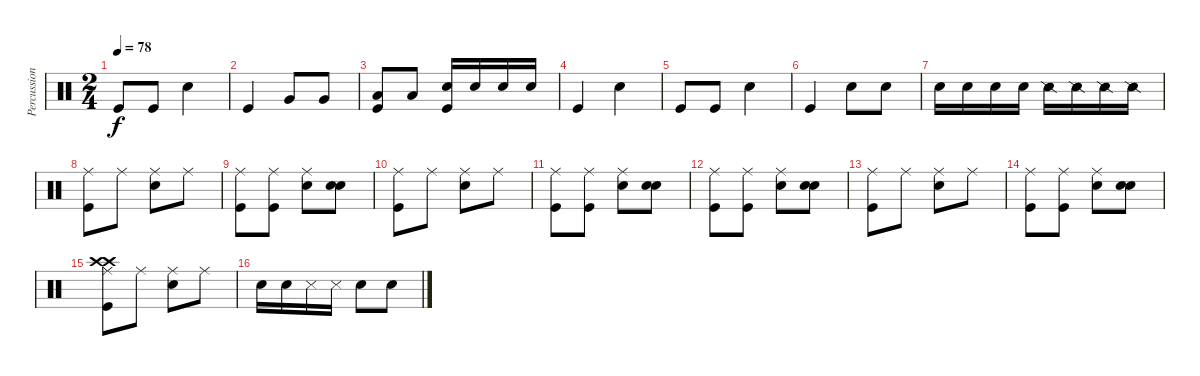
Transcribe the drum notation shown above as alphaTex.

\track ("Percussion" "Percussion") {instrument percussion}
\staff {score}
\articulation defaults
\ts (2 4)
\tempo 78
\clef neutral
\ks c "Kick (hit)".8{dy f} "Kick (hit)".8 "Snare (hit) 2".4
|
"Kick (hit)".4 "Very Low Tom (hit)".8 "Very Low Tom (hit)".8 |
("Low Floor Tom (hit)" "Kick (hit)").8 "Low Floor Tom (hit)".8 ("Metronome (bell)" "Kick (hit)").16 "Metronome (bell)".16 "Metronome (bell)".16 "Metronome (bell)".16 |
"Kick (hit)".4 "Snare (hit) 2".4 |
"Kick (hit)".8 "Kick (hit)".8 "Snare (hit) 2".4 |
"Kick (hit)".4 "Electric Snare (hit)".8 "Electric Snare (hit)".8 |
"Snare (hit) 2".16 "Snare (hit) 2".16 "Snare (hit) 2".16 "Snare (hit) 2".16 "Snare (side stick) 2".16 "Snare (side stick) 2".16 "Snare (side stick) 2".16 "Snare (side stick) 2".16 |
("Ride (middle)" "Kick (hit)").8 "Ride (middle)".8 ("Ride (middle)" "Metronome (bell)").8 "Ride (middle)".8 |
("Ride (middle)" "Kick (hit)").8 ("Ride (middle)" "Kick (hit)").8 ("Ride (middle)" "Metronome (bell)").8 ("Snare (hit)" "Metronome (bell)").8 |
("Ride (middle)" "Kick (hit)").8 "Ride (middle)".8 ("Ride (middle)" "Metronome (bell)").8 "Ride (middle)".8 |
("Ride (middle)" "Kick (hit)").8 ("Ride (middle)" "Kick (hit)").8 ("Ride (middle)" "Metronome (bell)").8 ("Snare (hit)" "Metronome (bell)").8 |
("Ride (middle)" "Kick (hit)").8 ("Ride (middle)" "Kick (hit)").8 ("Ride (middle)" "Metronome (bell)").8 ("Snare (hit)" "Metronome (bell)").8 |
("Ride (middle)" "Kick (hit)").8 "Ride (middle)".8 ("Ride (middle)" "Metronome (bell)").8 "Ride (middle)".8 |
("Ride (middle)" "Kick (hit)").8 ("Ride (middle)" "Kick (hit)").8 ("Ride (middle)" "Metronome (bell)").8 ("Snare (hit)" "Metronome (bell)").8 |
("Ride (middle)" "Kick (hit)" "Crash high (hit)" "Crash high (hit)").8 "Ride (middle)".8 ("Ride (middle)" "Metronome (bell)").8 "Ride (middle)".8 |
"Metronome (bell)".16 "Metronome (bell)".16 "Metronome (hit)".16 "Metronome (hit)".16 "Snare (hit) 2".8 "Snare (hit) 2".8
